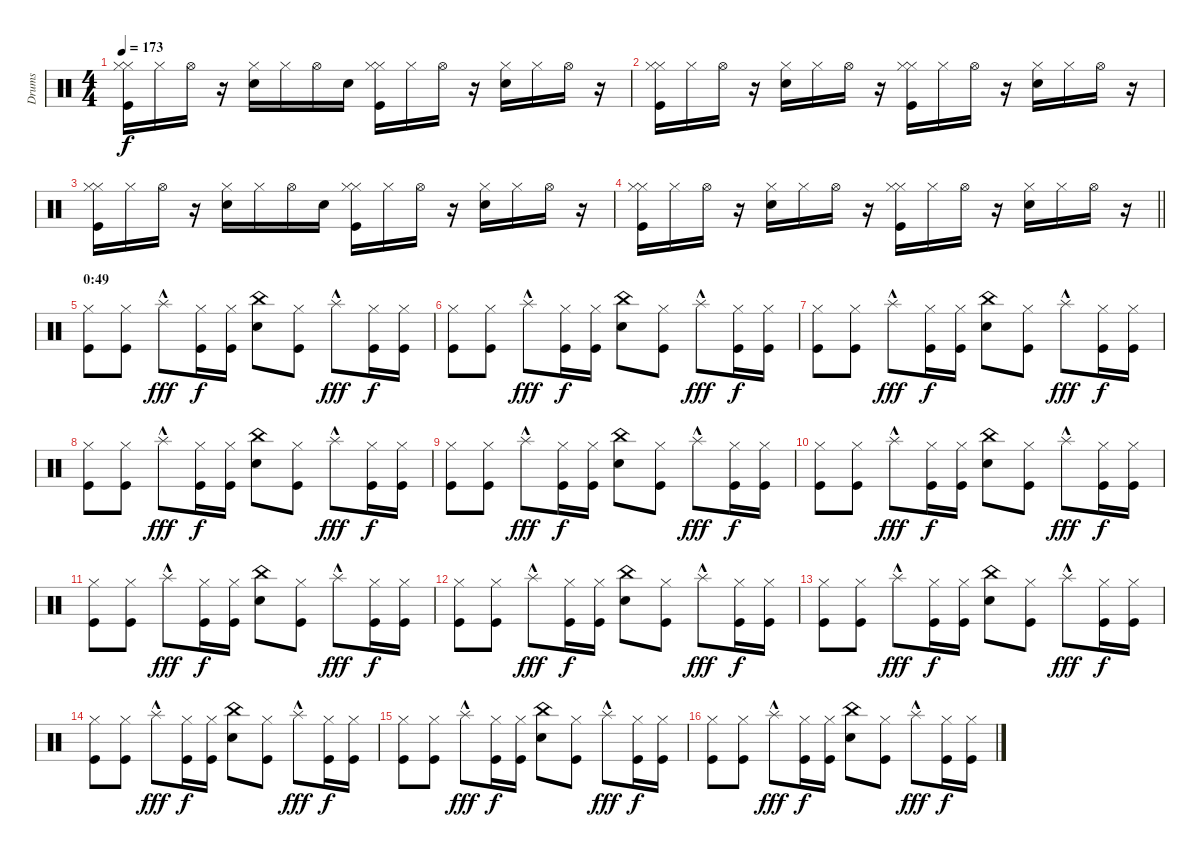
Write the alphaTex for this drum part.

\track ("Drums" "Drums") {instrument percussion}
\staff {score}
\articulation defaults
\ts (4 4)
\tempo 173
\clef neutral
\ks c
("Hi-Hat (closed)" "Hi-Hat (closed)" "Kick (hit)").16{dy f} "Hi-Hat (closed)".16 "Hi-Hat (open)".16 r.16 ("Hi-Hat (closed)" "Snare (hit) 2").16 "Hi-Hat (closed)".16 "Hi-Hat (open)".16 "Snare (hit) 2".16 ("Hi-Hat (closed)" "Hi-Hat (closed)" "Kick (hit)").16 "Hi-Hat (closed)".16 "Hi-Hat (open)".16 r.16 ("Hi-Hat (closed)" "Snare (hit) 2").16 "Hi-Hat (closed)".16 "Hi-Hat (open)".16 r.16 |
("Hi-Hat (closed)" "Hi-Hat (closed)" "Kick (hit)").16 "Hi-Hat (closed)".16 "Hi-Hat (open)".16 r.16 ("Hi-Hat (closed)" "Snare (hit) 2").16 "Hi-Hat (closed)".16 "Hi-Hat (open)".16 r.16 ("Hi-Hat (closed)" "Hi-Hat (closed)" "Kick (hit)").16 "Hi-Hat (closed)".16 "Hi-Hat (open)".16 r.16 ("Hi-Hat (closed)" "Snare (hit) 2").16 "Hi-Hat (closed)".16 "Hi-Hat (open)".16 r.16 |
("Hi-Hat (closed)" "Hi-Hat (closed)" "Kick (hit)").16 "Hi-Hat (closed)".16 "Hi-Hat (open)".16 r.16 ("Hi-Hat (closed)" "Snare (hit) 2").16 "Hi-Hat (closed)".16 "Hi-Hat (open)".16 "Snare (hit) 2".16 ("Hi-Hat (closed)" "Hi-Hat (closed)" "Kick (hit)").16 "Hi-Hat (closed)".16 "Hi-Hat (open)".16 r.16 ("Hi-Hat (closed)" "Snare (hit) 2").16 "Hi-Hat (closed)".16 "Hi-Hat (open)".16 r.16 |
\barLineRight lightlight
("Hi-Hat (closed)" "Hi-Hat (closed)" "Kick (hit)").16 "Hi-Hat (closed)".16 "Hi-Hat (open)".16 r.16 ("Hi-Hat (closed)" "Snare (hit) 2").16 "Hi-Hat (closed)".16 "Hi-Hat (open)".16 r.16 ("Hi-Hat (closed)" "Hi-Hat (closed)" "Kick (hit)").16 "Hi-Hat (closed)".16 "Hi-Hat (open)".16 r.16 ("Hi-Hat (closed)" "Snare (hit) 2").16 "Hi-Hat (closed)".16 "Hi-Hat (open)".16 r.16 |
\section ("" "0:49")
("Hi-Hat (closed)" "Kick (hit)").8 ("Hi-Hat (closed)" "Kick (hit)").8 "Splash (hit)"{hac}.8{dy fff} ("Hi-Hat (closed)" "Kick (hit)").16{dy f} ("Hi-Hat (closed)" "Kick (hit)").16 ("China (hit)" "Snare (hit) 2").8 ("Hi-Hat (closed)" "Kick (hit)").8 "Splash (hit)"{hac}.8{dy fff} ("Hi-Hat (closed)" "Kick (hit)").16{dy f} ("Hi-Hat (closed)" "Kick (hit)").16 |
("Hi-Hat (closed)" "Kick (hit)").8 ("Hi-Hat (closed)" "Kick (hit)").8 "Splash (hit)"{hac}.8{dy fff} ("Hi-Hat (closed)" "Kick (hit)").16{dy f} ("Hi-Hat (closed)" "Kick (hit)").16 ("China (hit)" "Snare (hit) 2").8 ("Hi-Hat (closed)" "Kick (hit)").8 "Splash (hit)"{hac}.8{dy fff} ("Hi-Hat (closed)" "Kick (hit)").16{dy f} ("Hi-Hat (closed)" "Kick (hit)").16 |
("Hi-Hat (closed)" "Kick (hit)").8 ("Hi-Hat (closed)" "Kick (hit)").8 "Splash (hit)"{hac}.8{dy fff} ("Hi-Hat (closed)" "Kick (hit)").16{dy f} ("Hi-Hat (closed)" "Kick (hit)").16 ("China (hit)" "Snare (hit) 2").8 ("Hi-Hat (closed)" "Kick (hit)").8 "Splash (hit)"{hac}.8{dy fff} ("Hi-Hat (closed)" "Kick (hit)").16{dy f} ("Hi-Hat (closed)" "Kick (hit)").16 |
("Hi-Hat (closed)" "Kick (hit)").8 ("Hi-Hat (closed)" "Kick (hit)").8 "Splash (hit)"{hac}.8{dy fff} ("Hi-Hat (closed)" "Kick (hit)").16{dy f} ("Hi-Hat (closed)" "Kick (hit)").16 ("China (hit)" "Snare (hit) 2").8 ("Hi-Hat (closed)" "Kick (hit)").8 "Splash (hit)"{hac}.8{dy fff} ("Hi-Hat (closed)" "Kick (hit)").16{dy f} ("Hi-Hat (closed)" "Kick (hit)").16 |
("Hi-Hat (closed)" "Kick (hit)").8 ("Hi-Hat (closed)" "Kick (hit)").8 "Splash (hit)"{hac}.8{dy fff} ("Hi-Hat (closed)" "Kick (hit)").16{dy f} ("Hi-Hat (closed)" "Kick (hit)").16 ("China (hit)" "Snare (hit) 2").8 ("Hi-Hat (closed)" "Kick (hit)").8 "Splash (hit)"{hac}.8{dy fff} ("Hi-Hat (closed)" "Kick (hit)").16{dy f} ("Hi-Hat (closed)" "Kick (hit)").16 |
("Hi-Hat (closed)" "Kick (hit)").8 ("Hi-Hat (closed)" "Kick (hit)").8 "Splash (hit)"{hac}.8{dy fff} ("Hi-Hat (closed)" "Kick (hit)").16{dy f} ("Hi-Hat (closed)" "Kick (hit)").16 ("China (hit)" "Snare (hit) 2").8 ("Hi-Hat (closed)" "Kick (hit)").8 "Splash (hit)"{hac}.8{dy fff} ("Hi-Hat (closed)" "Kick (hit)").16{dy f} ("Hi-Hat (closed)" "Kick (hit)").16 |
("Hi-Hat (closed)" "Kick (hit)").8 ("Hi-Hat (closed)" "Kick (hit)").8 "Splash (hit)"{hac}.8{dy fff} ("Hi-Hat (closed)" "Kick (hit)").16{dy f} ("Hi-Hat (closed)" "Kick (hit)").16 ("China (hit)" "Snare (hit) 2").8 ("Hi-Hat (closed)" "Kick (hit)").8 "Splash (hit)"{hac}.8{dy fff} ("Hi-Hat (closed)" "Kick (hit)").16{dy f} ("Hi-Hat (closed)" "Kick (hit)").16 |
("Hi-Hat (closed)" "Kick (hit)").8 ("Hi-Hat (closed)" "Kick (hit)").8 "Splash (hit)"{hac}.8{dy fff} ("Hi-Hat (closed)" "Kick (hit)").16{dy f} ("Hi-Hat (closed)" "Kick (hit)").16 ("China (hit)" "Snare (hit) 2").8 ("Hi-Hat (closed)" "Kick (hit)").8 "Splash (hit)"{hac}.8{dy fff} ("Hi-Hat (closed)" "Kick (hit)").16{dy f} ("Hi-Hat (closed)" "Kick (hit)").16 |
("Hi-Hat (closed)" "Kick (hit)").8 ("Hi-Hat (closed)" "Kick (hit)").8 "Splash (hit)"{hac}.8{dy fff} ("Hi-Hat (closed)" "Kick (hit)").16{dy f} ("Hi-Hat (closed)" "Kick (hit)").16 ("China (hit)" "Snare (hit) 2").8 ("Hi-Hat (closed)" "Kick (hit)").8 "Splash (hit)"{hac}.8{dy fff} ("Hi-Hat (closed)" "Kick (hit)").16{dy f} ("Hi-Hat (closed)" "Kick (hit)").16 |
("Hi-Hat (closed)" "Kick (hit)").8 ("Hi-Hat (closed)" "Kick (hit)").8 "Splash (hit)"{hac}.8{dy fff} ("Hi-Hat (closed)" "Kick (hit)").16{dy f} ("Hi-Hat (closed)" "Kick (hit)").16 ("China (hit)" "Snare (hit) 2").8 ("Hi-Hat (closed)" "Kick (hit)").8 "Splash (hit)"{hac}.8{dy fff} ("Hi-Hat (closed)" "Kick (hit)").16{dy f} ("Hi-Hat (closed)" "Kick (hit)").16 |
("Hi-Hat (closed)" "Kick (hit)").8 ("Hi-Hat (closed)" "Kick (hit)").8 "Splash (hit)"{hac}.8{dy fff} ("Hi-Hat (closed)" "Kick (hit)").16{dy f} ("Hi-Hat (closed)" "Kick (hit)").16 ("China (hit)" "Snare (hit) 2").8 ("Hi-Hat (closed)" "Kick (hit)").8 "Splash (hit)"{hac}.8{dy fff} ("Hi-Hat (closed)" "Kick (hit)").16{dy f} ("Hi-Hat (closed)" "Kick (hit)").16 |
("Hi-Hat (closed)" "Kick (hit)").8 ("Hi-Hat (closed)" "Kick (hit)").8 "Splash (hit)"{hac}.8{dy fff} ("Hi-Hat (closed)" "Kick (hit)").16{dy f} ("Hi-Hat (closed)" "Kick (hit)").16 ("China (hit)" "Snare (hit) 2").8 ("Hi-Hat (closed)" "Kick (hit)").8 "Splash (hit)"{hac}.8{dy fff} ("Hi-Hat (closed)" "Kick (hit)").16{dy f} ("Hi-Hat (closed)" "Kick (hit)").16
